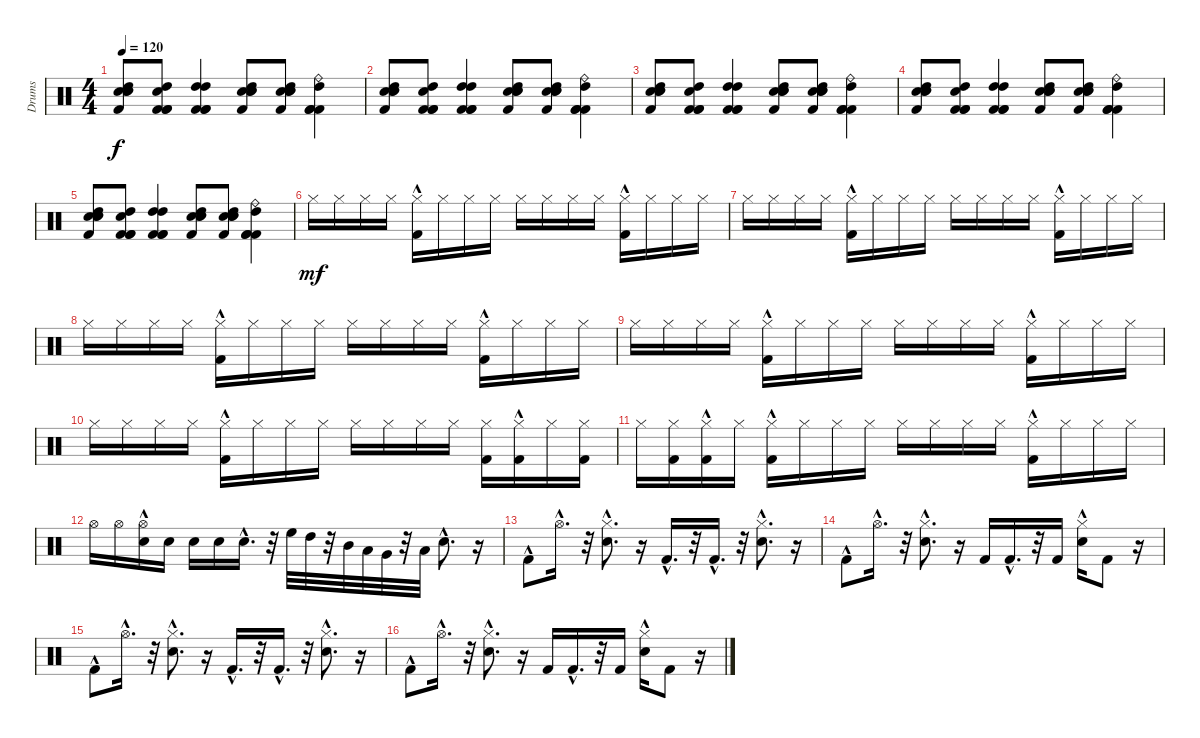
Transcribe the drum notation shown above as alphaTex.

\track ("Drums" "Drums") {instrument percussion}
\staff {score}
\articulation defaults
\ts (4 4)
\tempo 120
\clef neutral
\ks c
("High Tom (hit)" "Hand Clap (hit)" "Hand Clap (hit)" "Hand Clap (hit)" "Kick (hit) 2").8{dy f} ("High Tom (hit)" "Hand Clap (hit)" "Kick (hit) 2" "Kick (hit) 2" "Kick (hit) 2").8 ("High Tom (hit)" "High Tom (hit)" "Kick (hit) 2" "Kick (hit) 2" "Kick (hit) 2").4 ("High Tom (hit)" "Hand Clap (hit)" "Hand Clap (hit)" "Hand Clap (hit)" "Kick (hit) 2").8 ("High Tom (hit)" "Hand Clap (hit)" "Hand Clap (hit)" "Hand Clap (hit)" "Kick (hit) 2").8 ("High Tom (hit)" "Ride (bell)" "Kick (hit) 2" "Kick (hit) 2" "Kick (hit) 2").4 |
("High Tom (hit)" "Hand Clap (hit)" "Hand Clap (hit)" "Hand Clap (hit)" "Kick (hit) 2").8 ("High Tom (hit)" "Hand Clap (hit)" "Kick (hit) 2" "Kick (hit) 2" "Kick (hit) 2").8 ("High Tom (hit)" "High Tom (hit)" "Kick (hit) 2" "Kick (hit) 2" "Kick (hit) 2").4 ("High Tom (hit)" "Hand Clap (hit)" "Hand Clap (hit)" "Hand Clap (hit)" "Kick (hit) 2").8 ("High Tom (hit)" "Hand Clap (hit)" "Hand Clap (hit)" "Hand Clap (hit)" "Kick (hit) 2").8 ("High Tom (hit)" "Ride (bell)" "Kick (hit) 2" "Kick (hit) 2" "Kick (hit) 2").4 |
("High Tom (hit)" "Hand Clap (hit)" "Hand Clap (hit)" "Hand Clap (hit)" "Kick (hit) 2").8 ("High Tom (hit)" "Hand Clap (hit)" "Kick (hit) 2" "Kick (hit) 2" "Kick (hit) 2").8 ("High Tom (hit)" "High Tom (hit)" "Kick (hit) 2" "Kick (hit) 2" "Kick (hit) 2").4 ("High Tom (hit)" "Hand Clap (hit)" "Hand Clap (hit)" "Hand Clap (hit)" "Kick (hit) 2").8 ("High Tom (hit)" "Hand Clap (hit)" "Hand Clap (hit)" "Hand Clap (hit)" "Kick (hit) 2").8 ("High Tom (hit)" "Ride (bell)" "Kick (hit) 2" "Kick (hit) 2" "Kick (hit) 2").4 |
("High Tom (hit)" "Hand Clap (hit)" "Hand Clap (hit)" "Hand Clap (hit)" "Kick (hit) 2").8 ("High Tom (hit)" "Hand Clap (hit)" "Kick (hit) 2" "Kick (hit) 2" "Kick (hit) 2").8 ("High Tom (hit)" "High Tom (hit)" "Kick (hit) 2" "Kick (hit) 2" "Kick (hit) 2").4 ("High Tom (hit)" "Hand Clap (hit)" "Hand Clap (hit)" "Hand Clap (hit)" "Kick (hit) 2").8 ("High Tom (hit)" "Hand Clap (hit)" "Hand Clap (hit)" "Hand Clap (hit)" "Kick (hit) 2").8 ("High Tom (hit)" "Ride (bell)" "Kick (hit) 2" "Kick (hit) 2" "Kick (hit) 2").4 |
("High Tom (hit)" "Hand Clap (hit)" "Hand Clap (hit)" "Hand Clap (hit)" "Kick (hit) 2").8 ("High Tom (hit)" "Hand Clap (hit)" "Kick (hit) 2" "Kick (hit) 2" "Kick (hit) 2").8 ("High Tom (hit)" "High Tom (hit)" "Kick (hit) 2" "Kick (hit) 2" "Kick (hit) 2").4 ("High Tom (hit)" "Hand Clap (hit)" "Hand Clap (hit)" "Hand Clap (hit)" "Kick (hit) 2").8 ("High Tom (hit)" "Hand Clap (hit)" "Hand Clap (hit)" "Hand Clap (hit)" "Kick (hit) 2").8 ("High Tom (hit)" "Ride (bell)" "Kick (hit) 2" "Kick (hit) 2" "Kick (hit) 2").4 |
"Hi-Hat (closed)".16{dy mf} "Hi-Hat (closed)".16 "Hi-Hat (closed)".16 "Hi-Hat (closed)".16 ("Hi-Hat (closed)" "Kick (hit) 2"{hac}).16 "Hi-Hat (closed)".16 "Hi-Hat (closed)".16 "Hi-Hat (closed)".16 "Hi-Hat (closed)".16 "Hi-Hat (closed)".16 "Hi-Hat (closed)".16 "Hi-Hat (closed)".16 ("Hi-Hat (closed)" "Kick (hit) 2"{hac}).16 "Hi-Hat (closed)".16 "Hi-Hat (closed)".16 "Hi-Hat (closed)".16 |
"Hi-Hat (closed)".16 "Hi-Hat (closed)".16 "Hi-Hat (closed)".16 "Hi-Hat (closed)".16 ("Hi-Hat (closed)" "Kick (hit) 2"{hac}).16 "Hi-Hat (closed)".16 "Hi-Hat (closed)".16 "Hi-Hat (closed)".16 "Hi-Hat (closed)".16 "Hi-Hat (closed)".16 "Hi-Hat (closed)".16 "Hi-Hat (closed)".16 ("Kick (hit) 2"{hac} "Hi-Hat (closed)").16 "Hi-Hat (closed)".16 "Hi-Hat (closed)".16 "Hi-Hat (closed)".16 |
"Hi-Hat (closed)".16 "Hi-Hat (closed)".16 "Hi-Hat (closed)".16 "Hi-Hat (closed)".16 ("Kick (hit) 2"{hac} "Hi-Hat (closed)").16 "Hi-Hat (closed)".16 "Hi-Hat (closed)".16 "Hi-Hat (closed)".16 "Hi-Hat (closed)".16 "Hi-Hat (closed)".16 "Hi-Hat (closed)".16 "Hi-Hat (closed)".16 ("Kick (hit) 2"{hac} "Hi-Hat (closed)").16 "Hi-Hat (closed)".16 "Hi-Hat (closed)".16 "Hi-Hat (closed)".16 |
"Hi-Hat (closed)".16 "Hi-Hat (closed)".16 "Hi-Hat (closed)".16 "Hi-Hat (closed)".16 ("Hi-Hat (closed)" "Kick (hit) 2"{hac}).16 "Hi-Hat (closed)".16 "Hi-Hat (closed)".16 "Hi-Hat (closed)".16 "Hi-Hat (closed)".16 "Hi-Hat (closed)".16 "Hi-Hat (closed)".16 "Hi-Hat (closed)".16 ("Hi-Hat (closed)" "Kick (hit) 2"{hac}).16 "Hi-Hat (closed)".16 "Hi-Hat (closed)".16 "Hi-Hat (closed)".16 |
"Hi-Hat (closed)".16 "Hi-Hat (closed)".16 "Hi-Hat (closed)".16 "Hi-Hat (closed)".16 ("Hi-Hat (closed)" "Kick (hit) 2"{hac}).16 "Hi-Hat (closed)".16 "Hi-Hat (closed)".16 "Hi-Hat (closed)".16 "Hi-Hat (closed)".16 "Hi-Hat (closed)".16 "Hi-Hat (closed)".16 "Hi-Hat (closed)".16 ("Kick (hit) 2" "Hi-Hat (closed)").16 ("Kick (hit) 2"{hac} "Hi-Hat (closed)").16 "Hi-Hat (closed)".16 ("Hi-Hat (closed)" "Kick (hit) 2").16 |
"Hi-Hat (closed)".16 ("Kick (hit) 2" "Hi-Hat (closed)").16 ("Hi-Hat (closed)" "Kick (hit) 2"{hac}).16 "Hi-Hat (closed)".16 ("Hi-Hat (closed)" "Kick (hit) 2"{hac}).16 "Hi-Hat (closed)".16 "Hi-Hat (closed)".16 "Hi-Hat (closed)".16 "Hi-Hat (closed)".16 "Hi-Hat (closed)".16 "Hi-Hat (closed)".16 "Hi-Hat (closed)".16 ("Kick (hit) 2"{hac} "Hi-Hat (closed)").16 "Hi-Hat (closed)".16 "Hi-Hat (closed)".16 "Hi-Hat (closed)".16 |
"Hi-Hat (open)".16 "Hi-Hat (open)".16 ("Snare (hit) 2" "Hi-Hat (open)"{hac}).16 "Snare (hit) 2".16 "Snare (hit) 2".16 "Snare (hit) 2".16 "Snare (hit) 2"{hac}.16{d} r.32 "High Floor Tom (hit)".32 "High Tom (hit)".32 r.32 "Mid Tom (hit)".32 "Low Tom (hit)".32 "Very Low Tom (hit)".32 r.32 "Low Floor Tom (hit)".32 "Snare (hit) 2"{hac}.8{d} r.16 |
"Kick (hit) 2"{hac}.8 "Hi-Hat (open)"{hac}.16{d} r.32 ("Hi-Hat (closed)"{hac} "Snare (hit) 2"{hac}).8{d} r.16 "Kick (hit) 2"{hac}.16{d} r.32 "Kick (hit) 2"{hac}.16{d} r.32 ("Hi-Hat (closed)"{hac} "Snare (hit) 2"{hac}).8{d} r.16 |
"Kick (hit) 2"{hac}.8 "Hi-Hat (open)"{hac}.16{d} r.32 ("Hi-Hat (closed)"{hac} "Snare (hit) 2"{hac}).8{d} r.16 "Kick (hit) 2".16 "Kick (hit) 2"{hac}.16{d} r.32 "Kick (hit) 2".16 ("Hi-Hat (closed)"{hac} "Snare (hit) 2"{hac}).16 "Kick (hit) 2".8 r.16 |
"Kick (hit) 2"{hac}.8 "Hi-Hat (open)"{hac}.16{d} r.32 ("Hi-Hat (closed)"{hac} "Snare (hit) 2"{hac}).8{d} r.16 "Kick (hit) 2"{hac}.16{d} r.32 "Kick (hit) 2"{hac}.16{d} r.32 ("Hi-Hat (closed)"{hac} "Snare (hit) 2"{hac}).8{d} r.16 |
"Kick (hit) 2"{hac}.8 "Hi-Hat (open)"{hac}.16{d} r.32 ("Snare (hit) 2"{hac} "Hi-Hat (closed)"{hac}).8{d} r.16 "Kick (hit) 2".16 "Kick (hit) 2"{hac}.16{d} r.32 "Kick (hit) 2".16 ("Hi-Hat (closed)"{hac} "Snare (hit) 2"{hac}).16 "Kick (hit) 2".8 r.16
